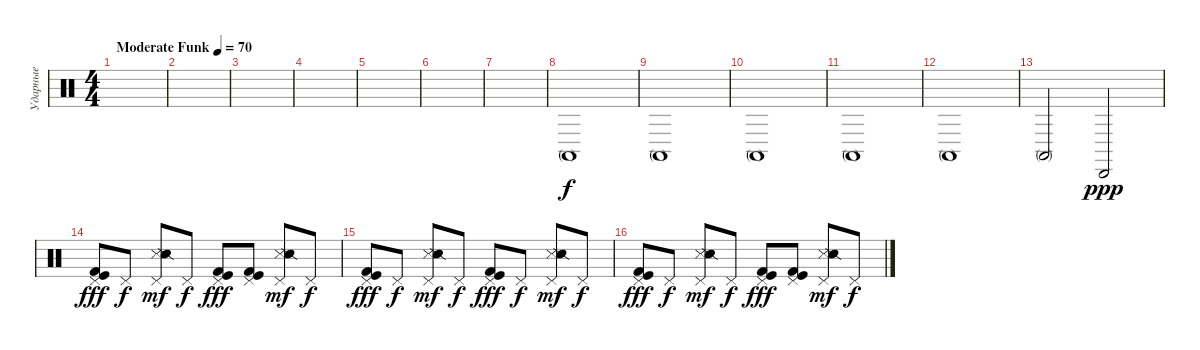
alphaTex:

\track ("Ударные" "Ударные") {instrument percussion}
\staff {score}
\articulation defaults
\ts (4 4)
\tempo (70 "Moderate Funk")
\clef neutral
\ks c
|
|
|
|
|
|
|
"Conga high (mute)".1 |
"Conga high (mute)".1 |
"Conga high (mute)".1 |
"Conga high (mute)".1 |
"Conga high (mute)".1 |
"Conga high (mute)".2 "Cabasa (hit)".2{dy ppp} |
("Pedal Hi-Hat (hit)" "Kick (hit)" "Kick (hit) 2").8{dy fff} "Pedal Hi-Hat (hit)".8{dy f} ("Pedal Hi-Hat (hit)" "Snare (side stick) 3" "Snare (side stick) 2").8{dy mf} "Pedal Hi-Hat (hit)".8{dy f} ("Pedal Hi-Hat (hit)" "Kick (hit)" "Kick (hit) 2").8{dy fff} ("Pedal Hi-Hat (hit)" "Kick (hit)" "Kick (hit) 2").8 ("Pedal Hi-Hat (hit)" "Snare (side stick) 3" "Snare (side stick) 2").8{dy mf} "Pedal Hi-Hat (hit)".8{dy f} |
("Pedal Hi-Hat (hit)" "Kick (hit)" "Kick (hit) 2").8{dy fff} "Pedal Hi-Hat (hit)".8{dy f} ("Pedal Hi-Hat (hit)" "Snare (side stick) 3" "Snare (side stick) 2").8{dy mf} "Pedal Hi-Hat (hit)".8{dy f} ("Pedal Hi-Hat (hit)" "Kick (hit)" "Kick (hit) 2").8{dy fff} "Pedal Hi-Hat (hit)".8{dy f} ("Pedal Hi-Hat (hit)" "Snare (side stick) 3" "Snare (side stick) 2").8{dy mf} "Pedal Hi-Hat (hit)".8{dy f} |
("Pedal Hi-Hat (hit)" "Kick (hit)" "Kick (hit) 2").8{dy fff} "Pedal Hi-Hat (hit)".8{dy f} ("Pedal Hi-Hat (hit)" "Snare (side stick) 3" "Snare (side stick) 2").8{dy mf} "Pedal Hi-Hat (hit)".8{dy f} ("Pedal Hi-Hat (hit)" "Kick (hit)" "Kick (hit) 2").8{dy fff} ("Pedal Hi-Hat (hit)" "Kick (hit)" "Kick (hit) 2").8 ("Pedal Hi-Hat (hit)" "Snare (side stick) 3" "Snare (side stick) 2").8{dy mf} "Pedal Hi-Hat (hit)".8{dy f}
